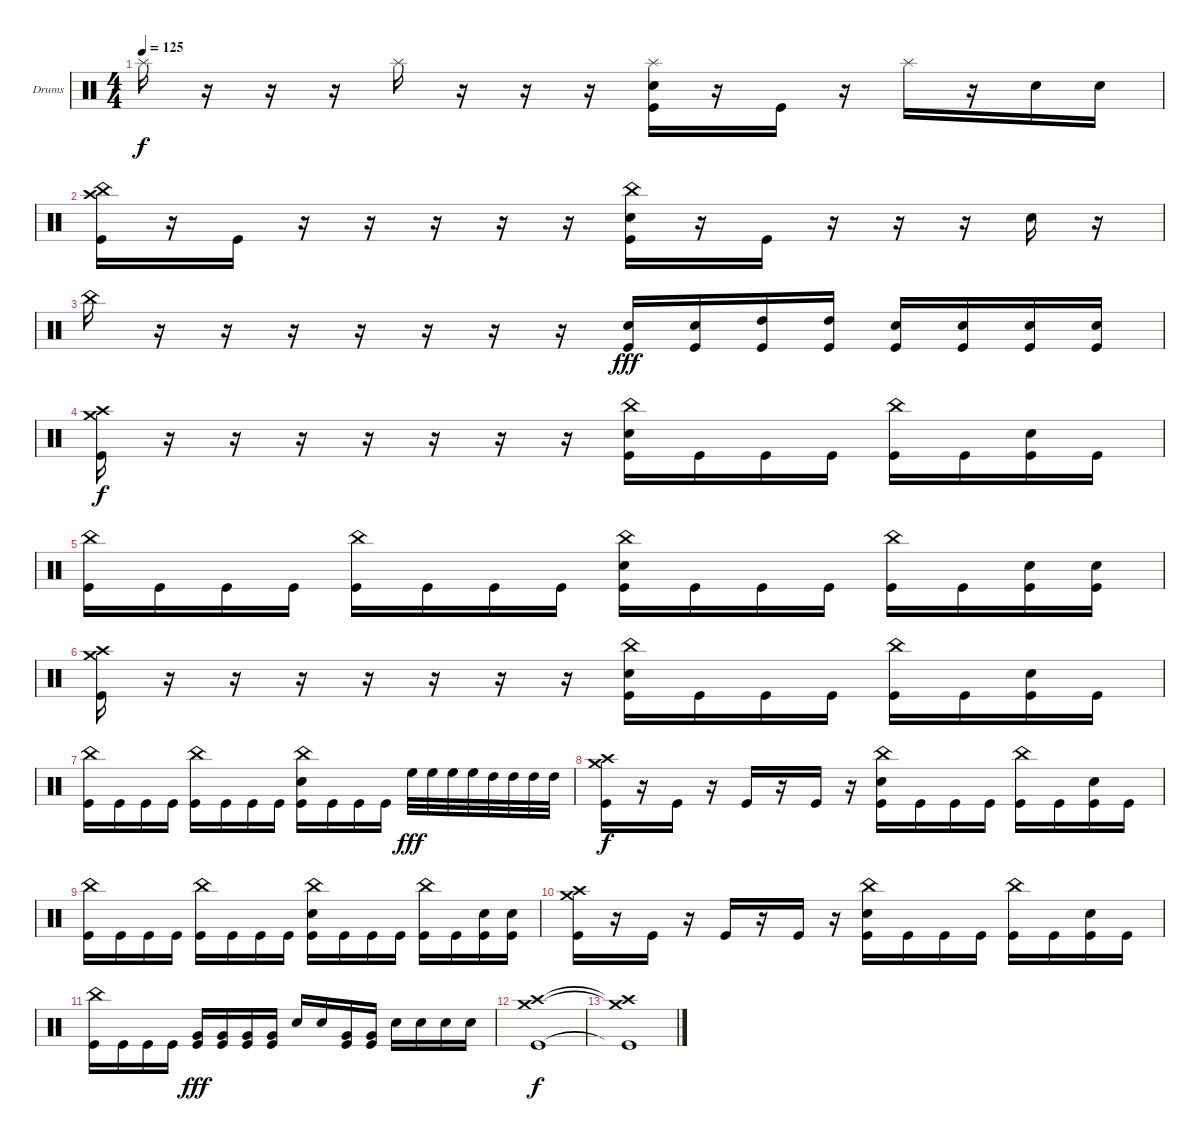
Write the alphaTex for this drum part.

\defaultSystemsLayout 4
\bracketExtendMode groupsimilarinstruments
\firstSystemTrackNameOrientation horizontal
\otherSystemsTrackNameOrientation horizontal
\track ("Drumkit" "Drums") {instrument percussion}
\staff {score}
\articulation defaults
\ts (4 4)
\tempo 125
\clef neutral
\scale
0.333333
\ks c "Splash (hit)".16{dy f}
r.16 r.16 r.16 "Splash (hit)".16 r.16 r.16 r.16 ("Kick (hit)" "Snare (hit) 2" "Splash (hit)").16 r.16 "Kick (hit)".16 r.16 "Splash (hit)".16 r.16 "Snare (hit) 2".16 "Snare (hit) 2".16 |
\scale
0.333333 ("Kick (hit)" "China (hit)" "Crash high (hit)").16 r.16 "Kick (hit)".16 r.16 r.16 r.16 r.16 r.16 ("China (hit)" "Kick (hit)" "Snare (hit) 2").16 r.16 "Kick (hit)".16 r.16 r.16 r.16 "Snare (hit) 2".16 r.16 |
\scale
0.333333 "China (hit)".16 r.16 r.16 r.16 r.16 r.16 r.16 r.16 ("Kick (hit)" "Snare (hit) 2").16{dy fff} ("Kick (hit)" "Snare (hit) 2").16 ("Kick (hit)" "High Tom (hit)").16 ("Kick (hit)" "High Tom (hit)").16 ("Kick (hit)" "Snare (hit) 2").16 ("Kick (hit)" "Snare (hit) 2").16 ("Kick (hit)" "Snare (hit) 2").16 ("Kick (hit)" "Snare (hit) 2").16 |
\scale
0.333333 ("Kick (hit)" "Crash high (hit)" "Crash medium (hit)").16{dy f} r.16 r.16 r.16 r.16 r.16 r.16 r.16 ("China (hit)" "Kick (hit)" "Snare (hit) 2").16 "Kick (hit)".16 "Kick (hit)".16 "Kick (hit)".16 ("China (hit)" "Kick (hit)").16 "Kick (hit)".16 ("Snare (hit) 2" "Kick (hit)").16 "Kick (hit)".16 |
\scale
0.333333 ("China (hit)" "Kick (hit)").16 "Kick (hit)".16 "Kick (hit)".16 "Kick (hit)".16 ("China (hit)" "Kick (hit)").16 "Kick (hit)".16 "Kick (hit)".16 "Kick (hit)".16 ("China (hit)" "Kick (hit)" "Snare (hit) 2").16 "Kick (hit)".16 "Kick (hit)".16 "Kick (hit)".16 ("China (hit)" "Kick (hit)").16 "Kick (hit)".16 ("Snare (hit) 2" "Kick (hit)").16 ("Snare (hit) 2" "Kick (hit)").16 |
\scale
0.333333 ("Kick (hit)" "Crash high (hit)" "Crash medium (hit)").16 r.16 r.16 r.16 r.16 r.16 r.16 r.16 ("China (hit)" "Kick (hit)" "Snare (hit) 2").16 "Kick (hit)".16 "Kick (hit)".16 "Kick (hit)".16 ("China (hit)" "Kick (hit)").16 "Kick (hit)".16 ("Snare (hit) 2" "Kick (hit)").16 "Kick (hit)".16 |
\scale
0.333333 ("China (hit)" "Kick (hit)").16 "Kick (hit)".16 "Kick (hit)".16 "Kick (hit)".16 ("China (hit)" "Kick (hit)").16 "Kick (hit)".16 "Kick (hit)".16 "Kick (hit)".16 ("China (hit)" "Kick (hit)" "Snare (hit) 2").16 "Kick (hit)".16 "Kick (hit)".16 "Kick (hit)".16 "High Floor Tom (hit)".32{dy fff} "High Floor Tom (hit)".32 "High Floor Tom (hit)".32 "High Floor Tom (hit)".32 "High Tom (hit)".32 "High Tom (hit)".32 "High Tom (hit)".32 "High Tom (hit)".32 |
\scale
0.333333 ("Kick (hit)" "Crash high (hit)" "Crash medium (hit)").16{dy f} r.16 "Kick (hit)".16 r.16 "Kick (hit)".16 r.16 "Kick (hit)".16 r.16 ("China (hit)" "Kick (hit)" "Snare (hit) 2").16 "Kick (hit)".16 "Kick (hit)".16 "Kick (hit)".16 ("Kick (hit)" "China (hit)").16 "Kick (hit)".16 ("Snare (hit) 2" "Kick (hit)").16 "Kick (hit)".16 |
\scale
0.333333 ("China (hit)" "Kick (hit)").16 "Kick (hit)".16 "Kick (hit)".16 "Kick (hit)".16 ("Kick (hit)" "China (hit)").16 "Kick (hit)".16 "Kick (hit)".16 "Kick (hit)".16 ("China (hit)" "Kick (hit)" "Snare (hit) 2").16 "Kick (hit)".16 "Kick (hit)".16 "Kick (hit)".16 ("China (hit)" "Kick (hit)").16 "Kick (hit)".16 ("Snare (hit) 2" "Kick (hit)").16 ("Snare (hit) 2" "Kick (hit)").16 |
\scale
0.333333 ("Kick (hit)" "Crash high (hit)" "Crash medium (hit)").16 r.16 "Kick (hit)".16 r.16 "Kick (hit)".16 r.16 "Kick (hit)".16 r.16 ("China (hit)" "Kick (hit)" "Snare (hit) 2").16 "Kick (hit)".16 "Kick (hit)".16 "Kick (hit)".16 ("Kick (hit)" "China (hit)").16 "Kick (hit)".16 ("Snare (hit) 2" "Kick (hit)").16 "Kick (hit)".16 |
\scale
0.333333 ("China (hit)" "Kick (hit)").16 "Kick (hit)".16 "Kick (hit)".16 "Kick (hit)".16 ("Very Low Tom (hit)" "Kick (hit)").16{dy fff} ("Very Low Tom (hit)" "Kick (hit)").16 ("Very Low Tom (hit)" "Kick (hit)").16 ("Very Low Tom (hit)" "Kick (hit)").16 "Snare (hit) 2".16 "Snare (hit) 2".16 ("Very Low Tom (hit)" "Kick (hit)").16 ("Very Low Tom (hit)" "Kick (hit)").16 "Snare (hit) 2".16 "Snare (hit) 2".16 "Snare (hit) 2".16 "Snare (hit) 2".16 |
("Kick (hit)" "Crash high (hit)" "Crash medium (hit)").1{dy f} |
("Kick (hit)"{t} "Crash high (hit)"{t} "Crash medium (hit)"{t}).1
